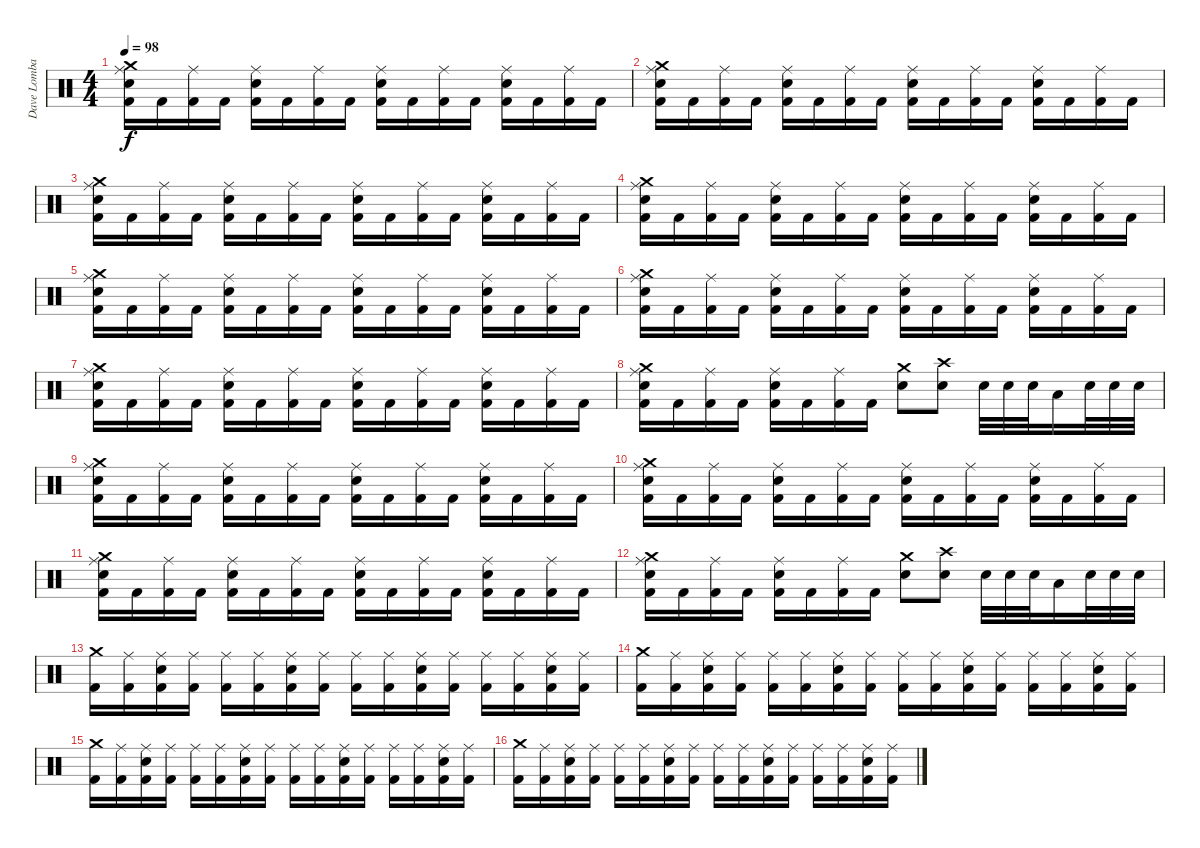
\track ("Dave Lombardo" "Dave Lomba") {instrument percussion}
\staff {score}
\articulation defaults
\ts (4 4)
\tempo 98
\clef neutral
\ks c
("Crash medium (hit)" "Electric Snare (hit)" "Ride (middle)" "Kick (hit) 2").16{dy f} "Kick (hit) 2".16 ("Ride (middle)" "Kick (hit) 2").16 "Kick (hit) 2".16 ("Electric Snare (hit)" "Ride (middle)" "Kick (hit) 2").16 "Kick (hit) 2".16 ("Ride (middle)" "Kick (hit) 2").16 "Kick (hit) 2".16 ("Electric Snare (hit)" "Ride (middle)" "Kick (hit) 2").16 "Kick (hit) 2".16 ("Ride (middle)" "Kick (hit) 2").16 "Kick (hit) 2".16 ("Electric Snare (hit)" "Ride (middle)" "Kick (hit) 2").16 "Kick (hit) 2".16 ("Ride (middle)" "Kick (hit) 2").16 "Kick (hit) 2".16 |
("Crash medium (hit)" "Electric Snare (hit)" "Ride (middle)" "Kick (hit) 2").16 "Kick (hit) 2".16 ("Ride (middle)" "Kick (hit) 2").16 "Kick (hit) 2".16 ("Electric Snare (hit)" "Ride (middle)" "Kick (hit) 2").16 "Kick (hit) 2".16 ("Ride (middle)" "Kick (hit) 2").16 "Kick (hit) 2".16 ("Electric Snare (hit)" "Ride (middle)" "Kick (hit) 2").16 "Kick (hit) 2".16 ("Ride (middle)" "Kick (hit) 2").16 "Kick (hit) 2".16 ("Electric Snare (hit)" "Ride (middle)" "Kick (hit) 2").16 "Kick (hit) 2".16 ("Ride (middle)" "Kick (hit) 2").16 "Kick (hit) 2".16 |
("Crash medium (hit)" "Electric Snare (hit)" "Ride (middle)" "Kick (hit) 2").16 "Kick (hit) 2".16 ("Ride (middle)" "Kick (hit) 2").16 "Kick (hit) 2".16 ("Electric Snare (hit)" "Ride (middle)" "Kick (hit) 2").16 "Kick (hit) 2".16 ("Ride (middle)" "Kick (hit) 2").16 "Kick (hit) 2".16 ("Electric Snare (hit)" "Ride (middle)" "Kick (hit) 2").16 "Kick (hit) 2".16 ("Ride (middle)" "Kick (hit) 2").16 "Kick (hit) 2".16 ("Electric Snare (hit)" "Ride (middle)" "Kick (hit) 2").16 "Kick (hit) 2".16 ("Ride (middle)" "Kick (hit) 2").16 "Kick (hit) 2".16 |
("Crash medium (hit)" "Electric Snare (hit)" "Ride (middle)" "Kick (hit) 2").16 "Kick (hit) 2".16 ("Ride (middle)" "Kick (hit) 2").16 "Kick (hit) 2".16 ("Electric Snare (hit)" "Ride (middle)" "Kick (hit) 2").16 "Kick (hit) 2".16 ("Ride (middle)" "Kick (hit) 2").16 "Kick (hit) 2".16 ("Electric Snare (hit)" "Ride (middle)" "Kick (hit) 2").16 "Kick (hit) 2".16 ("Ride (middle)" "Kick (hit) 2").16 "Kick (hit) 2".16 ("Electric Snare (hit)" "Ride (middle)" "Kick (hit) 2").16 "Kick (hit) 2".16 ("Ride (middle)" "Kick (hit) 2").16 "Kick (hit) 2".16 |
("Crash medium (hit)" "Electric Snare (hit)" "Ride (middle)" "Kick (hit) 2").16 "Kick (hit) 2".16 ("Ride (middle)" "Kick (hit) 2").16 "Kick (hit) 2".16 ("Electric Snare (hit)" "Ride (middle)" "Kick (hit) 2").16 "Kick (hit) 2".16 ("Ride (middle)" "Kick (hit) 2").16 "Kick (hit) 2".16 ("Electric Snare (hit)" "Ride (middle)" "Kick (hit) 2").16 "Kick (hit) 2".16 ("Ride (middle)" "Kick (hit) 2").16 "Kick (hit) 2".16 ("Electric Snare (hit)" "Ride (middle)" "Kick (hit) 2").16 "Kick (hit) 2".16 ("Ride (middle)" "Kick (hit) 2").16 "Kick (hit) 2".16 |
("Crash medium (hit)" "Electric Snare (hit)" "Ride (middle)" "Kick (hit) 2").16 "Kick (hit) 2".16 ("Ride (middle)" "Kick (hit) 2").16 "Kick (hit) 2".16 ("Electric Snare (hit)" "Ride (middle)" "Kick (hit) 2").16 "Kick (hit) 2".16 ("Ride (middle)" "Kick (hit) 2").16 "Kick (hit) 2".16 ("Electric Snare (hit)" "Ride (middle)" "Kick (hit) 2").16 "Kick (hit) 2".16 ("Ride (middle)" "Kick (hit) 2").16 "Kick (hit) 2".16 ("Electric Snare (hit)" "Ride (middle)" "Kick (hit) 2").16 "Kick (hit) 2".16 ("Ride (middle)" "Kick (hit) 2").16 "Kick (hit) 2".16 |
("Crash medium (hit)" "Electric Snare (hit)" "Ride (middle)" "Kick (hit) 2").16 "Kick (hit) 2".16 ("Ride (middle)" "Kick (hit) 2").16 "Kick (hit) 2".16 ("Electric Snare (hit)" "Ride (middle)" "Kick (hit) 2").16 "Kick (hit) 2".16 ("Ride (middle)" "Kick (hit) 2").16 "Kick (hit) 2".16 ("Electric Snare (hit)" "Ride (middle)" "Kick (hit) 2").16 "Kick (hit) 2".16 ("Ride (middle)" "Kick (hit) 2").16 "Kick (hit) 2".16 ("Electric Snare (hit)" "Ride (middle)" "Kick (hit) 2").16 "Kick (hit) 2".16 ("Ride (middle)" "Kick (hit) 2").16 "Kick (hit) 2".16 |
("Crash medium (hit)" "Electric Snare (hit)" "Ride (middle)" "Kick (hit) 2").16 "Kick (hit) 2".16 ("Ride (middle)" "Kick (hit) 2").16 "Kick (hit) 2".16 ("Electric Snare (hit)" "Ride (middle)" "Kick (hit) 2").16 "Kick (hit) 2".16 ("Ride (middle)" "Kick (hit) 2").16 "Kick (hit) 2".16 ("Electric Snare (hit)" "Crash medium (hit)").8 ("Crash high (hit)" "Electric Snare (hit)").8 "Electric Snare (hit)".32 "Electric Snare (hit)".32 "Electric Snare (hit)".32 "Low Tom (hit)".16 "Electric Snare (hit)".32 "Electric Snare (hit)".32 "Electric Snare (hit)".32 |
("Crash medium (hit)" "Electric Snare (hit)" "Ride (middle)" "Kick (hit) 2").16 "Kick (hit) 2".16 ("Ride (middle)" "Kick (hit) 2").16 "Kick (hit) 2".16 ("Electric Snare (hit)" "Ride (middle)" "Kick (hit) 2").16 "Kick (hit) 2".16 ("Ride (middle)" "Kick (hit) 2").16 "Kick (hit) 2".16 ("Electric Snare (hit)" "Ride (middle)" "Kick (hit) 2").16 "Kick (hit) 2".16 ("Ride (middle)" "Kick (hit) 2").16 "Kick (hit) 2".16 ("Electric Snare (hit)" "Ride (middle)" "Kick (hit) 2").16 "Kick (hit) 2".16 ("Ride (middle)" "Kick (hit) 2").16 "Kick (hit) 2".16 |
("Crash medium (hit)" "Electric Snare (hit)" "Ride (middle)" "Kick (hit) 2").16 "Kick (hit) 2".16 ("Ride (middle)" "Kick (hit) 2").16 "Kick (hit) 2".16 ("Electric Snare (hit)" "Ride (middle)" "Kick (hit) 2").16 "Kick (hit) 2".16 ("Ride (middle)" "Kick (hit) 2").16 "Kick (hit) 2".16 ("Electric Snare (hit)" "Ride (middle)" "Kick (hit) 2").16 "Kick (hit) 2".16 ("Ride (middle)" "Kick (hit) 2").16 "Kick (hit) 2".16 ("Electric Snare (hit)" "Ride (middle)" "Kick (hit) 2").16 "Kick (hit) 2".16 ("Ride (middle)" "Kick (hit) 2").16 "Kick (hit) 2".16 |
("Crash medium (hit)" "Electric Snare (hit)" "Ride (middle)" "Kick (hit) 2").16 "Kick (hit) 2".16 ("Ride (middle)" "Kick (hit) 2").16 "Kick (hit) 2".16 ("Electric Snare (hit)" "Ride (middle)" "Kick (hit) 2").16 "Kick (hit) 2".16 ("Ride (middle)" "Kick (hit) 2").16 "Kick (hit) 2".16 ("Electric Snare (hit)" "Ride (middle)" "Kick (hit) 2").16 "Kick (hit) 2".16 ("Ride (middle)" "Kick (hit) 2").16 "Kick (hit) 2".16 ("Electric Snare (hit)" "Ride (middle)" "Kick (hit) 2").16 "Kick (hit) 2".16 ("Ride (middle)" "Kick (hit) 2").16 "Kick (hit) 2".16 |
("Crash medium (hit)" "Electric Snare (hit)" "Ride (middle)" "Kick (hit) 2").16 "Kick (hit) 2".16 ("Ride (middle)" "Kick (hit) 2").16 "Kick (hit) 2".16 ("Electric Snare (hit)" "Ride (middle)" "Kick (hit) 2").16 "Kick (hit) 2".16 ("Ride (middle)" "Kick (hit) 2").16 "Kick (hit) 2".16 ("Electric Snare (hit)" "Crash medium (hit)").8 ("Crash high (hit)" "Electric Snare (hit)").8 "Electric Snare (hit)".32 "Electric Snare (hit)".32 "Electric Snare (hit)".32 "Low Tom (hit)".16 "Electric Snare (hit)".32 "Electric Snare (hit)".32 "Electric Snare (hit)".32 |
("Crash medium (hit)" "Kick (hit) 2").16 ("Ride (middle)" "Kick (hit) 2").16 ("Electric Snare (hit)" "Ride (middle)" "Kick (hit) 2").16 ("Ride (middle)" "Kick (hit) 2").16 ("Ride (middle)" "Kick (hit) 2").16 ("Ride (middle)" "Kick (hit) 2").16 ("Electric Snare (hit)" "Ride (middle)" "Kick (hit) 2").16 ("Ride (middle)" "Kick (hit) 2").16 ("Ride (middle)" "Kick (hit) 2").16 ("Ride (middle)" "Kick (hit) 2").16 ("Electric Snare (hit)" "Ride (middle)" "Kick (hit) 2").16 ("Ride (middle)" "Kick (hit) 2").16 ("Ride (middle)" "Kick (hit) 2").16 ("Ride (middle)" "Kick (hit) 2").16 ("Electric Snare (hit)" "Ride (middle)" "Kick (hit) 2").16 ("Ride (middle)" "Kick (hit) 2").16 |
("Crash medium (hit)" "Kick (hit) 2").16 ("Ride (middle)" "Kick (hit) 2").16 ("Electric Snare (hit)" "Ride (middle)" "Kick (hit) 2").16 ("Ride (middle)" "Kick (hit) 2").16 ("Ride (middle)" "Kick (hit) 2").16 ("Ride (middle)" "Kick (hit) 2").16 ("Electric Snare (hit)" "Ride (middle)" "Kick (hit) 2").16 ("Ride (middle)" "Kick (hit) 2").16 ("Ride (middle)" "Kick (hit) 2").16 ("Ride (middle)" "Kick (hit) 2").16 ("Electric Snare (hit)" "Ride (middle)" "Kick (hit) 2").16 ("Ride (middle)" "Kick (hit) 2").16 ("Ride (middle)" "Kick (hit) 2").16 ("Ride (middle)" "Kick (hit) 2").16 ("Electric Snare (hit)" "Ride (middle)" "Kick (hit) 2").16 ("Ride (middle)" "Kick (hit) 2").16 |
("Crash medium (hit)" "Kick (hit) 2").16 ("Ride (middle)" "Kick (hit) 2").16 ("Electric Snare (hit)" "Ride (middle)" "Kick (hit) 2").16 ("Ride (middle)" "Kick (hit) 2").16 ("Ride (middle)" "Kick (hit) 2").16 ("Ride (middle)" "Kick (hit) 2").16 ("Electric Snare (hit)" "Ride (middle)" "Kick (hit) 2").16 ("Ride (middle)" "Kick (hit) 2").16 ("Ride (middle)" "Kick (hit) 2").16 ("Ride (middle)" "Kick (hit) 2").16 ("Electric Snare (hit)" "Ride (middle)" "Kick (hit) 2").16 ("Ride (middle)" "Kick (hit) 2").16 ("Ride (middle)" "Kick (hit) 2").16 ("Ride (middle)" "Kick (hit) 2").16 ("Electric Snare (hit)" "Ride (middle)" "Kick (hit) 2").16 ("Ride (middle)" "Kick (hit) 2").16 |
("Crash medium (hit)" "Kick (hit) 2").16 ("Ride (middle)" "Kick (hit) 2").16 ("Electric Snare (hit)" "Ride (middle)" "Kick (hit) 2").16 ("Ride (middle)" "Kick (hit) 2").16 ("Ride (middle)" "Kick (hit) 2").16 ("Ride (middle)" "Kick (hit) 2").16 ("Electric Snare (hit)" "Ride (middle)" "Kick (hit) 2").16 ("Ride (middle)" "Kick (hit) 2").16 ("Ride (middle)" "Kick (hit) 2").16 ("Ride (middle)" "Kick (hit) 2").16 ("Electric Snare (hit)" "Ride (middle)" "Kick (hit) 2").16 ("Ride (middle)" "Kick (hit) 2").16 ("Ride (middle)" "Kick (hit) 2").16 ("Ride (middle)" "Kick (hit) 2").16 ("Electric Snare (hit)" "Ride (middle)" "Kick (hit) 2").16 ("Ride (middle)" "Kick (hit) 2").16
